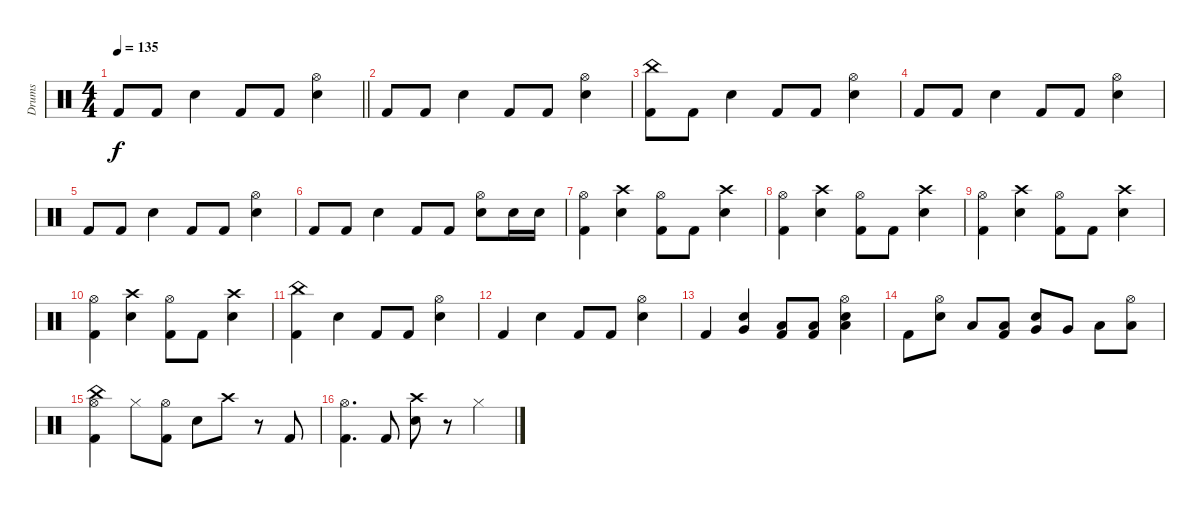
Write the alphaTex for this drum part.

\track ("Drums" "Drums") {instrument percussion}
\staff {score}
\articulation defaults
\ts (4 4)
\tempo 135
\clef neutral
\barLineRight lightlight
\ks c "Kick (hit) 2".8{dy f} "Kick (hit) 2".8 "Electric Snare (hit)".4 "Kick (hit) 2".8 "Kick (hit) 2".8
("Hi-Hat (open)" "Electric Snare (hit)").4 |
"Kick (hit) 2".8 "Kick (hit) 2".8 "Electric Snare (hit)".4 "Kick (hit) 2".8 "Kick (hit) 2".8 ("Hi-Hat (open)" "Electric Snare (hit)").4 |
("China (hit)" "Kick (hit) 2").8 "Kick (hit) 2".8 "Electric Snare (hit)".4 "Kick (hit) 2".8 "Kick (hit) 2".8 ("Hi-Hat (open)" "Electric Snare (hit)").4 |
"Kick (hit) 2".8 "Kick (hit) 2".8 "Electric Snare (hit)".4 "Kick (hit) 2".8 "Kick (hit) 2".8 ("Hi-Hat (open)" "Electric Snare (hit)").4 |
"Kick (hit) 2".8 "Kick (hit) 2".8 "Electric Snare (hit)".4 "Kick (hit) 2".8 "Kick (hit) 2".8 ("Hi-Hat (open)" "Electric Snare (hit)").4 |
"Kick (hit) 2".8 "Kick (hit) 2".8 "Electric Snare (hit)".4 "Kick (hit) 2".8 "Kick (hit) 2".8 ("Hi-Hat (open)" "Electric Snare (hit)").8 "Electric Snare (hit)".16 "Electric Snare (hit)".16 |
("Hi-Hat (open)" "Kick (hit) 2").4 ("Crash high (hit)" "Electric Snare (hit)").4 ("Hi-Hat (open)" "Kick (hit) 2").8 "Kick (hit) 2".8 ("Crash high (hit)" "Electric Snare (hit)").4 |
("Hi-Hat (open)" "Kick (hit) 2").4 ("Crash high (hit)" "Electric Snare (hit)").4 ("Hi-Hat (open)" "Kick (hit) 2").8 "Kick (hit) 2".8 ("Crash high (hit)" "Electric Snare (hit)").4 |
("Hi-Hat (open)" "Kick (hit) 2").4 ("Crash high (hit)" "Electric Snare (hit)").4 ("Hi-Hat (open)" "Kick (hit) 2").8 "Kick (hit) 2".8 ("Crash high (hit)" "Electric Snare (hit)").4 |
("Hi-Hat (open)" "Kick (hit) 2").4 ("Crash high (hit)" "Electric Snare (hit)").4 ("Hi-Hat (open)" "Kick (hit) 2").8 "Kick (hit) 2".8 ("Crash high (hit)" "Electric Snare (hit)").4 |
("China (hit)" "Kick (hit) 2").4 "Electric Snare (hit)".4 "Kick (hit) 2".8 "Kick (hit) 2".8 ("Hi-Hat (open)" "Electric Snare (hit)").4 |
"Kick (hit) 2".4 "Electric Snare (hit)".4 "Kick (hit) 2".8 "Kick (hit) 2".8 ("Hi-Hat (open)" "Electric Snare (hit)").4 |
"Kick (hit) 2".4 ("Electric Snare (hit)" "Very Low Tom (hit)").4 ("Kick (hit) 2" "Low Floor Tom (hit)").8 ("Kick (hit) 2" "Low Floor Tom (hit)").8 ("Hi-Hat (open)" "Electric Snare (hit)" "Low Floor Tom (hit)").4 |
"Kick (hit) 2".8 ("Hi-Hat (open)" "Electric Snare (hit)").8 "Low Tom (hit)".8 ("Low Tom (hit)" "Kick (hit) 2").8 ("Very Low Tom (hit)" "Electric Snare (hit)").8 "Very Low Tom (hit)".8 "Low Floor Tom (hit)".8 ("Hi-Hat (open)" "Low Floor Tom (hit)").8 |
("China (hit)" "Hi-Hat (open)" "Kick (hit) 2").4 "Hi-Hat (closed)".8 ("Hi-Hat (open)" "Kick (hit) 2").8 "Electric Snare (hit)".8 "Crash high (hit)".8 r.8 "Kick (hit) 2".8 |
("Hi-Hat (open)" "Kick (hit) 2").4{d} "Kick (hit) 2".8 ("Crash high (hit)" "Electric Snare (hit)").8 r.8 "Hi-Hat (closed)".4
